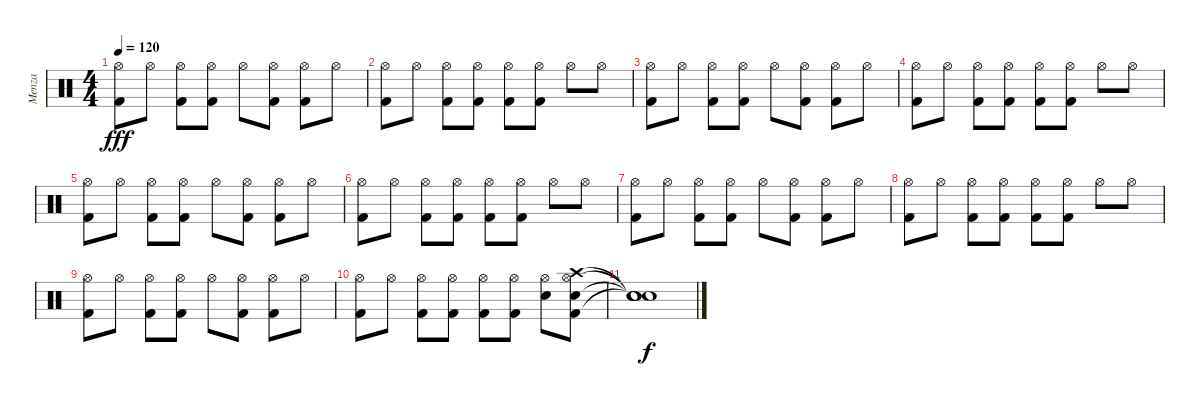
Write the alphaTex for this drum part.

\track ("Menza" "Menza") {instrument percussion}
\staff {score}
\articulation defaults
\ts (4 4)
\tempo 120
\clef neutral
\ks c
("Hi-Hat (open)" "Kick (hit) 2").8{dy fff} "Hi-Hat (open)".8 ("Hi-Hat (open)" "Kick (hit) 2").8 ("Hi-Hat (open)" "Kick (hit) 2").8 "Hi-Hat (open)".8 ("Hi-Hat (open)" "Kick (hit) 2").8 ("Hi-Hat (open)" "Kick (hit) 2").8 "Hi-Hat (open)".8 |
("Hi-Hat (open)" "Kick (hit) 2").8 "Hi-Hat (open)".8 ("Hi-Hat (open)" "Kick (hit) 2").8 ("Hi-Hat (open)" "Kick (hit) 2").8 ("Hi-Hat (open)" "Kick (hit) 2").8 ("Hi-Hat (open)" "Kick (hit) 2").8 "Hi-Hat (open)".8 "Hi-Hat (open)".8 |
("Hi-Hat (open)" "Kick (hit) 2").8 "Hi-Hat (open)".8 ("Hi-Hat (open)" "Kick (hit) 2").8 ("Hi-Hat (open)" "Kick (hit) 2").8 "Hi-Hat (open)".8 ("Hi-Hat (open)" "Kick (hit) 2").8 ("Hi-Hat (open)" "Kick (hit) 2").8 "Hi-Hat (open)".8 |
("Hi-Hat (open)" "Kick (hit) 2").8 "Hi-Hat (open)".8 ("Hi-Hat (open)" "Kick (hit) 2").8 ("Hi-Hat (open)" "Kick (hit) 2").8 ("Hi-Hat (open)" "Kick (hit) 2").8 ("Hi-Hat (open)" "Kick (hit) 2").8 "Hi-Hat (open)".8 "Hi-Hat (open)".8 |
("Hi-Hat (open)" "Kick (hit) 2").8 "Hi-Hat (open)".8 ("Hi-Hat (open)" "Kick (hit) 2").8 ("Hi-Hat (open)" "Kick (hit) 2").8 "Hi-Hat (open)".8 ("Hi-Hat (open)" "Kick (hit) 2").8 ("Hi-Hat (open)" "Kick (hit) 2").8 "Hi-Hat (open)".8 |
("Hi-Hat (open)" "Kick (hit) 2").8 "Hi-Hat (open)".8 ("Hi-Hat (open)" "Kick (hit) 2").8 ("Hi-Hat (open)" "Kick (hit) 2").8 ("Hi-Hat (open)" "Kick (hit) 2").8 ("Hi-Hat (open)" "Kick (hit) 2").8 "Hi-Hat (open)".8 "Hi-Hat (open)".8 |
("Hi-Hat (open)" "Kick (hit) 2").8 "Hi-Hat (open)".8 ("Hi-Hat (open)" "Kick (hit) 2").8 ("Hi-Hat (open)" "Kick (hit) 2").8 "Hi-Hat (open)".8 ("Hi-Hat (open)" "Kick (hit) 2").8 ("Hi-Hat (open)" "Kick (hit) 2").8 "Hi-Hat (open)".8 |
("Hi-Hat (open)" "Kick (hit) 2").8 "Hi-Hat (open)".8 ("Hi-Hat (open)" "Kick (hit) 2").8 ("Hi-Hat (open)" "Kick (hit) 2").8 ("Hi-Hat (open)" "Kick (hit) 2").8 ("Hi-Hat (open)" "Kick (hit) 2").8 "Hi-Hat (open)".8 "Hi-Hat (open)".8 |
("Hi-Hat (open)" "Kick (hit) 2").8 "Hi-Hat (open)".8 ("Hi-Hat (open)" "Kick (hit) 2").8 ("Hi-Hat (open)" "Kick (hit) 2").8 "Hi-Hat (open)".8 ("Hi-Hat (open)" "Kick (hit) 2").8 ("Hi-Hat (open)" "Kick (hit) 2").8 "Hi-Hat (open)".8 |
("Hi-Hat (open)" "Kick (hit) 2").8 "Hi-Hat (open)".8 ("Hi-Hat (open)" "Kick (hit) 2").8 ("Hi-Hat (open)" "Kick (hit) 2").8 ("Hi-Hat (open)" "Kick (hit) 2").8 ("Hi-Hat (open)" "Kick (hit) 2").8 ("Hi-Hat (open)" "Snare (hit) 2").8 ("Hi-Hat (open)" "Snare (hit) 2" "Crash high (hit)" "Kick (hit) 2").8 |
("Snare (hit)"{t} "Snare (hit)"{t} "Snare (hit)"{t} "Snare (hit)"{t}).1{dy f}
